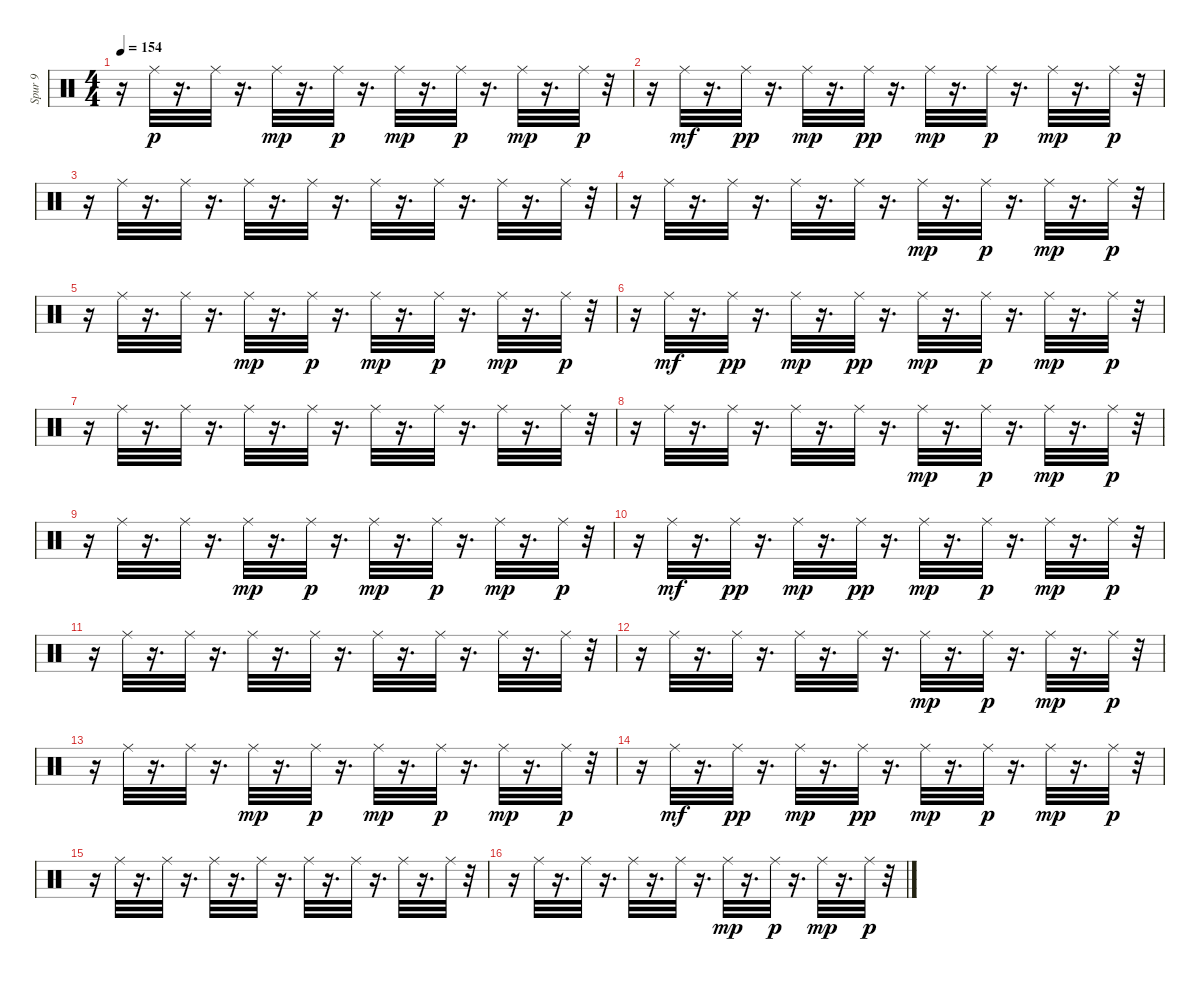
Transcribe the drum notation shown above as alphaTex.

\track ("Spur 9" "Spur 9") {instrument percussion}
\staff {score}
\articulation defaults
\ts (4 4)
\tempo 154
\clef neutral
\ks c
r.16{dy p} "Ride (middle)".32 r.16{d} "Ride (middle)".32 r.16{d} "Ride (middle)".32{dy mp} r.16{d} "Ride (middle)".32{dy p} r.16{d} "Ride (middle)".32{dy mp} r.16{d} "Ride (middle)".32{dy p} r.16{d} "Ride (middle)".32{dy mp} r.16{d} "Ride (middle)".32{dy p} r.32 |
r.16 "Ride (middle)".32{dy mf} r.16{d} "Ride (middle)".32{dy pp} r.16{d} "Ride (middle)".32{dy mp} r.16{d} "Ride (middle)".32{dy pp} r.16{d} "Ride (middle)".32{dy mp} r.16{d} "Ride (middle)".32{dy p} r.16{d} "Ride (middle)".32{dy mp} r.16{d} "Ride (middle)".32{dy p} r.32 |
r.16 "Ride (middle)".32 r.16{d} "Ride (middle)".32 r.16{d} "Ride (middle)".32 r.16{d} "Ride (middle)".32 r.16{d} "Ride (middle)".32 r.16{d} "Ride (middle)".32 r.16{d} "Ride (middle)".32 r.16{d} "Ride (middle)".32 r.32 |
r.16 "Ride (middle)".32 r.16{d} "Ride (middle)".32 r.16{d} "Ride (middle)".32 r.16{d} "Ride (middle)".32 r.16{d} "Ride (middle)".32{dy mp} r.16{d} "Ride (middle)".32{dy p} r.16{d} "Ride (middle)".32{dy mp} r.16{d} "Ride (middle)".32{dy p} r.32 |
r.16 "Ride (middle)".32 r.16{d} "Ride (middle)".32 r.16{d} "Ride (middle)".32{dy mp} r.16{d} "Ride (middle)".32{dy p} r.16{d} "Ride (middle)".32{dy mp} r.16{d} "Ride (middle)".32{dy p} r.16{d} "Ride (middle)".32{dy mp} r.16{d} "Ride (middle)".32{dy p} r.32 |
r.16 "Ride (middle)".32{dy mf} r.16{d} "Ride (middle)".32{dy pp} r.16{d} "Ride (middle)".32{dy mp} r.16{d} "Ride (middle)".32{dy pp} r.16{d} "Ride (middle)".32{dy mp} r.16{d} "Ride (middle)".32{dy p} r.16{d} "Ride (middle)".32{dy mp} r.16{d} "Ride (middle)".32{dy p} r.32 |
r.16 "Ride (middle)".32 r.16{d} "Ride (middle)".32 r.16{d} "Ride (middle)".32 r.16{d} "Ride (middle)".32 r.16{d} "Ride (middle)".32 r.16{d} "Ride (middle)".32 r.16{d} "Ride (middle)".32 r.16{d} "Ride (middle)".32 r.32 |
r.16 "Ride (middle)".32 r.16{d} "Ride (middle)".32 r.16{d} "Ride (middle)".32 r.16{d} "Ride (middle)".32 r.16{d} "Ride (middle)".32{dy mp} r.16{d} "Ride (middle)".32{dy p} r.16{d} "Ride (middle)".32{dy mp} r.16{d} "Ride (middle)".32{dy p} r.32 |
r.16 "Ride (middle)".32 r.16{d} "Ride (middle)".32 r.16{d} "Ride (middle)".32{dy mp} r.16{d} "Ride (middle)".32{dy p} r.16{d} "Ride (middle)".32{dy mp} r.16{d} "Ride (middle)".32{dy p} r.16{d} "Ride (middle)".32{dy mp} r.16{d} "Ride (middle)".32{dy p} r.32 |
r.16 "Ride (middle)".32{dy mf} r.16{d} "Ride (middle)".32{dy pp} r.16{d} "Ride (middle)".32{dy mp} r.16{d} "Ride (middle)".32{dy pp} r.16{d} "Ride (middle)".32{dy mp} r.16{d} "Ride (middle)".32{dy p} r.16{d} "Ride (middle)".32{dy mp} r.16{d} "Ride (middle)".32{dy p} r.32 |
r.16 "Ride (middle)".32 r.16{d} "Ride (middle)".32 r.16{d} "Ride (middle)".32 r.16{d} "Ride (middle)".32 r.16{d} "Ride (middle)".32 r.16{d} "Ride (middle)".32 r.16{d} "Ride (middle)".32 r.16{d} "Ride (middle)".32 r.32 |
r.16 "Ride (middle)".32 r.16{d} "Ride (middle)".32 r.16{d} "Ride (middle)".32 r.16{d} "Ride (middle)".32 r.16{d} "Ride (middle)".32{dy mp} r.16{d} "Ride (middle)".32{dy p} r.16{d} "Ride (middle)".32{dy mp} r.16{d} "Ride (middle)".32{dy p} r.32 |
r.16 "Ride (middle)".32 r.16{d} "Ride (middle)".32 r.16{d} "Ride (middle)".32{dy mp} r.16{d} "Ride (middle)".32{dy p} r.16{d} "Ride (middle)".32{dy mp} r.16{d} "Ride (middle)".32{dy p} r.16{d} "Ride (middle)".32{dy mp} r.16{d} "Ride (middle)".32{dy p} r.32 |
r.16 "Ride (middle)".32{dy mf} r.16{d} "Ride (middle)".32{dy pp} r.16{d} "Ride (middle)".32{dy mp} r.16{d} "Ride (middle)".32{dy pp} r.16{d} "Ride (middle)".32{dy mp} r.16{d} "Ride (middle)".32{dy p} r.16{d} "Ride (middle)".32{dy mp} r.16{d} "Ride (middle)".32{dy p} r.32 |
r.16 "Ride (middle)".32 r.16{d} "Ride (middle)".32 r.16{d} "Ride (middle)".32 r.16{d} "Ride (middle)".32 r.16{d} "Ride (middle)".32 r.16{d} "Ride (middle)".32 r.16{d} "Ride (middle)".32 r.16{d} "Ride (middle)".32 r.32 |
r.16 "Ride (middle)".32 r.16{d} "Ride (middle)".32 r.16{d} "Ride (middle)".32 r.16{d} "Ride (middle)".32 r.16{d} "Ride (middle)".32{dy mp} r.16{d} "Ride (middle)".32{dy p} r.16{d} "Ride (middle)".32{dy mp} r.16{d} "Ride (middle)".32{dy p} r.32
